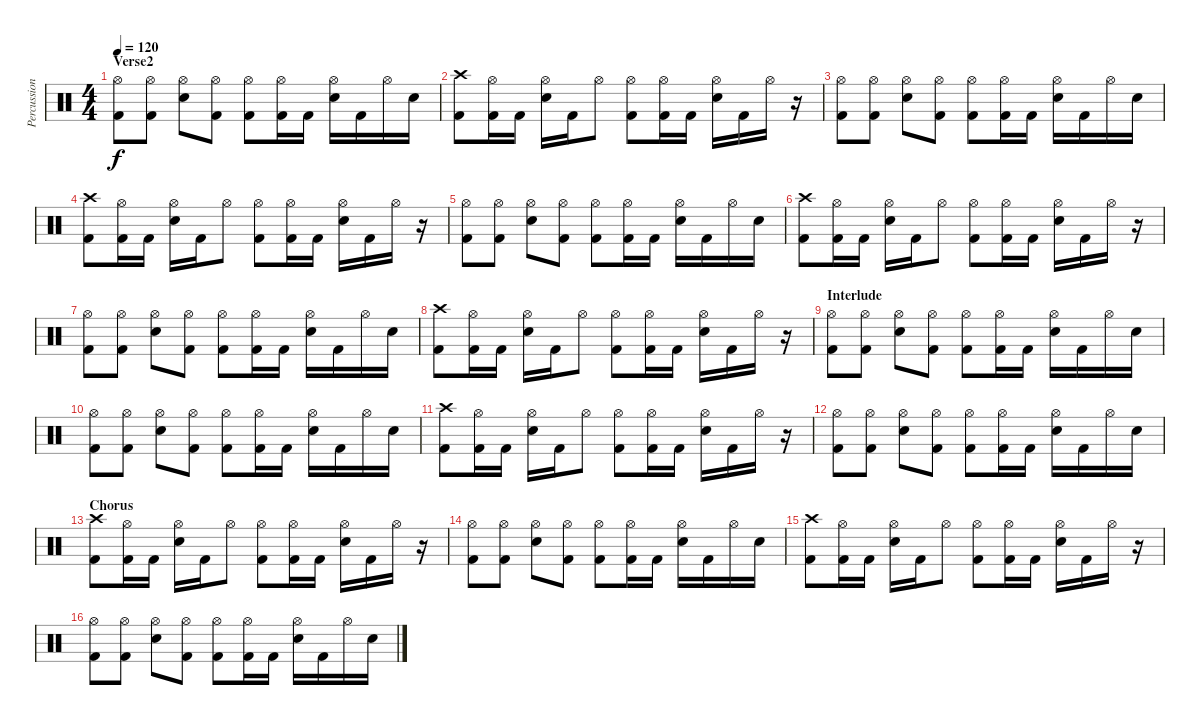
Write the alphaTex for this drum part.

\track ("Percussion" "Percussion") {instrument percussion}
\staff {score}
\articulation defaults
\ts (4 4)
\section ("" "Verse2")
\tempo 120
\clef neutral
\ks c
("Hi-Hat (open)" "Kick (hit) 2").8{dy f} ("Hi-Hat (open)" "Kick (hit) 2").8 ("Hi-Hat (open)" "Electric Snare (hit)").8 ("Hi-Hat (open)" "Kick (hit) 2").8 ("Hi-Hat (open)" "Kick (hit) 2").8 ("Hi-Hat (open)" "Kick (hit) 2").16 "Kick (hit) 2".16 ("Hi-Hat (open)" "Electric Snare (hit)").16 "Kick (hit) 2".16 "Hi-Hat (open)".16 "Electric Snare (hit)".16 |
("Crash high (hit)" "Kick (hit) 2").8 ("Hi-Hat (open)" "Kick (hit) 2").16 "Kick (hit) 2".16 ("Hi-Hat (open)" "Electric Snare (hit)").16 "Kick (hit) 2".16 "Hi-Hat (open)".8 ("Hi-Hat (open)" "Kick (hit) 2").8 ("Hi-Hat (open)" "Kick (hit) 2").16 "Kick (hit) 2".16 ("Hi-Hat (open)" "Electric Snare (hit)").16 "Kick (hit) 2".16 "Hi-Hat (open)".16 r.16 |
("Hi-Hat (open)" "Kick (hit) 2").8 ("Hi-Hat (open)" "Kick (hit) 2").8 ("Hi-Hat (open)" "Electric Snare (hit)").8 ("Hi-Hat (open)" "Kick (hit) 2").8 ("Hi-Hat (open)" "Kick (hit) 2").8 ("Hi-Hat (open)" "Kick (hit) 2").16 "Kick (hit) 2".16 ("Hi-Hat (open)" "Electric Snare (hit)").16 "Kick (hit) 2".16 "Hi-Hat (open)".16 "Electric Snare (hit)".16 |
("Crash high (hit)" "Kick (hit) 2").8 ("Hi-Hat (open)" "Kick (hit) 2").16 "Kick (hit) 2".16 ("Hi-Hat (open)" "Electric Snare (hit)").16 "Kick (hit) 2".16 "Hi-Hat (open)".8 ("Hi-Hat (open)" "Kick (hit) 2").8 ("Hi-Hat (open)" "Kick (hit) 2").16 "Kick (hit) 2".16 ("Hi-Hat (open)" "Electric Snare (hit)").16 "Kick (hit) 2".16 "Hi-Hat (open)".16 r.16 |
("Hi-Hat (open)" "Kick (hit) 2").8 ("Hi-Hat (open)" "Kick (hit) 2").8 ("Hi-Hat (open)" "Electric Snare (hit)").8 ("Hi-Hat (open)" "Kick (hit) 2").8 ("Hi-Hat (open)" "Kick (hit) 2").8 ("Hi-Hat (open)" "Kick (hit) 2").16 "Kick (hit) 2".16 ("Hi-Hat (open)" "Electric Snare (hit)").16 "Kick (hit) 2".16 "Hi-Hat (open)".16 "Electric Snare (hit)".16 |
("Crash high (hit)" "Kick (hit) 2").8 ("Hi-Hat (open)" "Kick (hit) 2").16 "Kick (hit) 2".16 ("Hi-Hat (open)" "Electric Snare (hit)").16 "Kick (hit) 2".16 "Hi-Hat (open)".8 ("Hi-Hat (open)" "Kick (hit) 2").8 ("Hi-Hat (open)" "Kick (hit) 2").16 "Kick (hit) 2".16 ("Hi-Hat (open)" "Electric Snare (hit)").16 "Kick (hit) 2".16 "Hi-Hat (open)".16 r.16 |
("Hi-Hat (open)" "Kick (hit) 2").8 ("Hi-Hat (open)" "Kick (hit) 2").8 ("Hi-Hat (open)" "Electric Snare (hit)").8 ("Hi-Hat (open)" "Kick (hit) 2").8 ("Hi-Hat (open)" "Kick (hit) 2").8 ("Hi-Hat (open)" "Kick (hit) 2").16 "Kick (hit) 2".16 ("Hi-Hat (open)" "Electric Snare (hit)").16 "Kick (hit) 2".16 "Hi-Hat (open)".16 "Electric Snare (hit)".16 |
("Crash high (hit)" "Kick (hit) 2").8 ("Hi-Hat (open)" "Kick (hit) 2").16 "Kick (hit) 2".16 ("Hi-Hat (open)" "Electric Snare (hit)").16 "Kick (hit) 2".16 "Hi-Hat (open)".8 ("Hi-Hat (open)" "Kick (hit) 2").8 ("Hi-Hat (open)" "Kick (hit) 2").16 "Kick (hit) 2".16 ("Hi-Hat (open)" "Electric Snare (hit)").16 "Kick (hit) 2".16 "Hi-Hat (open)".16 r.16 |
\section ("" "Interlude")
("Hi-Hat (open)" "Kick (hit) 2").8 ("Hi-Hat (open)" "Kick (hit) 2").8 ("Hi-Hat (open)" "Electric Snare (hit)").8 ("Hi-Hat (open)" "Kick (hit) 2").8 ("Hi-Hat (open)" "Kick (hit) 2").8 ("Hi-Hat (open)" "Kick (hit) 2").16 "Kick (hit) 2".16 ("Hi-Hat (open)" "Electric Snare (hit)").16 "Kick (hit) 2".16 "Hi-Hat (open)".16 "Electric Snare (hit)".16 |
("Hi-Hat (open)" "Kick (hit) 2").8 ("Hi-Hat (open)" "Kick (hit) 2").8 ("Hi-Hat (open)" "Electric Snare (hit)").8 ("Hi-Hat (open)" "Kick (hit) 2").8 ("Hi-Hat (open)" "Kick (hit) 2").8 ("Hi-Hat (open)" "Kick (hit) 2").16 "Kick (hit) 2".16 ("Hi-Hat (open)" "Electric Snare (hit)").16 "Kick (hit) 2".16 "Hi-Hat (open)".16 "Electric Snare (hit)".16 |
("Crash high (hit)" "Kick (hit) 2").8 ("Hi-Hat (open)" "Kick (hit) 2").16 "Kick (hit) 2".16 ("Hi-Hat (open)" "Electric Snare (hit)").16 "Kick (hit) 2".16 "Hi-Hat (open)".8 ("Hi-Hat (open)" "Kick (hit) 2").8 ("Hi-Hat (open)" "Kick (hit) 2").16 "Kick (hit) 2".16 ("Hi-Hat (open)" "Electric Snare (hit)").16 "Kick (hit) 2".16 "Hi-Hat (open)".16 r.16 |
("Hi-Hat (open)" "Kick (hit) 2").8 ("Hi-Hat (open)" "Kick (hit) 2").8 ("Hi-Hat (open)" "Electric Snare (hit)").8 ("Hi-Hat (open)" "Kick (hit) 2").8 ("Hi-Hat (open)" "Kick (hit) 2").8 ("Hi-Hat (open)" "Kick (hit) 2").16 "Kick (hit) 2".16 ("Hi-Hat (open)" "Electric Snare (hit)").16 "Kick (hit) 2".16 "Hi-Hat (open)".16 "Electric Snare (hit)".16 |
\section ("" "Chorus")
("Crash high (hit)" "Kick (hit) 2").8 ("Hi-Hat (open)" "Kick (hit) 2").16 "Kick (hit) 2".16 ("Hi-Hat (open)" "Electric Snare (hit)").16 "Kick (hit) 2".16 "Hi-Hat (open)".8 ("Hi-Hat (open)" "Kick (hit) 2").8 ("Hi-Hat (open)" "Kick (hit) 2").16 "Kick (hit) 2".16 ("Hi-Hat (open)" "Electric Snare (hit)").16 "Kick (hit) 2".16 "Hi-Hat (open)".16 r.16 |
("Hi-Hat (open)" "Kick (hit) 2").8 ("Hi-Hat (open)" "Kick (hit) 2").8 ("Hi-Hat (open)" "Electric Snare (hit)").8 ("Hi-Hat (open)" "Kick (hit) 2").8 ("Hi-Hat (open)" "Kick (hit) 2").8 ("Hi-Hat (open)" "Kick (hit) 2").16 "Kick (hit) 2".16 ("Hi-Hat (open)" "Electric Snare (hit)").16 "Kick (hit) 2".16 "Hi-Hat (open)".16 "Electric Snare (hit)".16 |
("Crash high (hit)" "Kick (hit) 2").8 ("Hi-Hat (open)" "Kick (hit) 2").16 "Kick (hit) 2".16 ("Hi-Hat (open)" "Electric Snare (hit)").16 "Kick (hit) 2".16 "Hi-Hat (open)".8 ("Hi-Hat (open)" "Kick (hit) 2").8 ("Hi-Hat (open)" "Kick (hit) 2").16 "Kick (hit) 2".16 ("Hi-Hat (open)" "Electric Snare (hit)").16 "Kick (hit) 2".16 "Hi-Hat (open)".16 r.16 |
("Hi-Hat (open)" "Kick (hit) 2").8 ("Hi-Hat (open)" "Kick (hit) 2").8 ("Hi-Hat (open)" "Electric Snare (hit)").8 ("Hi-Hat (open)" "Kick (hit) 2").8 ("Hi-Hat (open)" "Kick (hit) 2").8 ("Hi-Hat (open)" "Kick (hit) 2").16 "Kick (hit) 2".16 ("Hi-Hat (open)" "Electric Snare (hit)").16 "Kick (hit) 2".16 "Hi-Hat (open)".16 "Electric Snare (hit)".16
